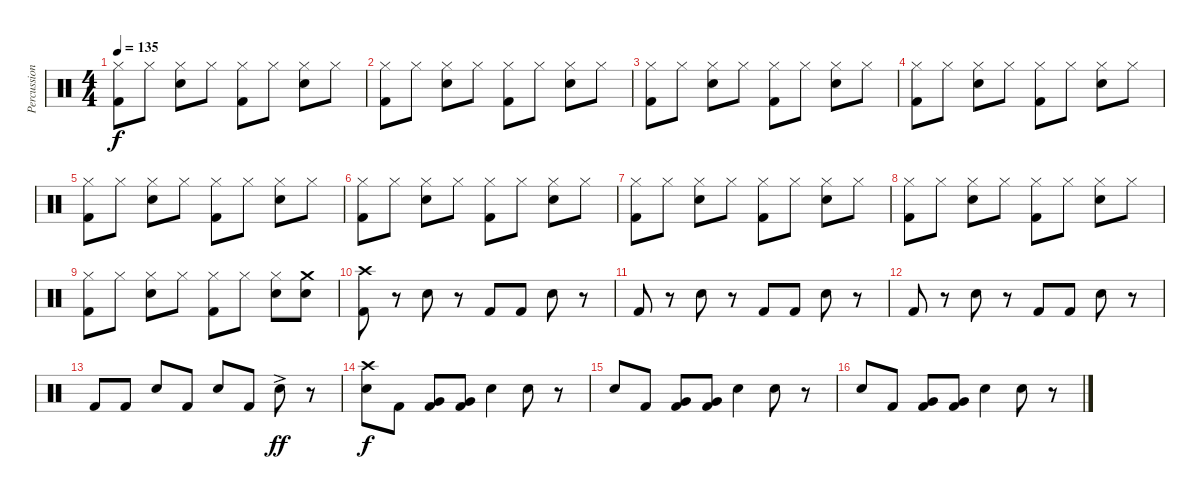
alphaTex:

\track ("Percussion" "Percussion") {instrument percussion}
\staff {score}
\articulation defaults
\ts (4 4)
\tempo 135
\clef neutral
\ks c
("Hi-Hat (closed)" "Kick (hit) 2").8{dy f} "Hi-Hat (closed)".8 ("Hi-Hat (closed)" "Snare (hit) 2").8 "Hi-Hat (closed)".8 ("Hi-Hat (closed)" "Kick (hit) 2").8 "Hi-Hat (closed)".8 ("Hi-Hat (closed)" "Snare (hit) 2").8 "Hi-Hat (closed)".8 |
("Hi-Hat (closed)" "Kick (hit) 2").8 "Hi-Hat (closed)".8 ("Hi-Hat (closed)" "Snare (hit) 2").8 "Hi-Hat (closed)".8 ("Hi-Hat (closed)" "Kick (hit) 2").8 "Hi-Hat (closed)".8 ("Hi-Hat (closed)" "Snare (hit) 2").8 "Hi-Hat (closed)".8 |
("Hi-Hat (closed)" "Kick (hit) 2").8 "Hi-Hat (closed)".8 ("Hi-Hat (closed)" "Snare (hit) 2").8 "Hi-Hat (closed)".8 ("Hi-Hat (closed)" "Kick (hit) 2").8 "Hi-Hat (closed)".8 ("Hi-Hat (closed)" "Snare (hit) 2").8 "Hi-Hat (closed)".8 |
("Hi-Hat (closed)" "Kick (hit) 2").8 "Hi-Hat (closed)".8 ("Hi-Hat (closed)" "Snare (hit) 2").8 "Hi-Hat (closed)".8 ("Hi-Hat (closed)" "Kick (hit) 2").8 "Hi-Hat (closed)".8 ("Hi-Hat (closed)" "Snare (hit) 2").8 "Hi-Hat (closed)".8 |
("Hi-Hat (closed)" "Kick (hit) 2").8 "Hi-Hat (closed)".8 ("Hi-Hat (closed)" "Snare (hit) 2").8 "Hi-Hat (closed)".8 ("Hi-Hat (closed)" "Kick (hit) 2").8 "Hi-Hat (closed)".8 ("Hi-Hat (closed)" "Snare (hit) 2").8 "Hi-Hat (closed)".8 |
("Hi-Hat (closed)" "Kick (hit) 2").8 "Hi-Hat (closed)".8 ("Hi-Hat (closed)" "Snare (hit) 2").8 "Hi-Hat (closed)".8 ("Hi-Hat (closed)" "Kick (hit) 2").8 "Hi-Hat (closed)".8 ("Hi-Hat (closed)" "Snare (hit) 2").8 "Hi-Hat (closed)".8 |
("Hi-Hat (closed)" "Kick (hit) 2").8 "Hi-Hat (closed)".8 ("Hi-Hat (closed)" "Snare (hit) 2").8 "Hi-Hat (closed)".8 ("Hi-Hat (closed)" "Kick (hit) 2").8 "Hi-Hat (closed)".8 ("Hi-Hat (closed)" "Snare (hit) 2").8 "Hi-Hat (closed)".8 |
("Hi-Hat (closed)" "Kick (hit) 2").8 "Hi-Hat (closed)".8 ("Hi-Hat (closed)" "Snare (hit) 2").8 "Hi-Hat (closed)".8 ("Hi-Hat (closed)" "Kick (hit) 2").8 "Hi-Hat (closed)".8 ("Hi-Hat (closed)" "Snare (hit) 2").8 "Hi-Hat (closed)".8 |
("Hi-Hat (closed)" "Kick (hit) 2").8 "Hi-Hat (closed)".8 ("Hi-Hat (closed)" "Snare (hit) 2").8 "Hi-Hat (closed)".8 ("Hi-Hat (closed)" "Kick (hit) 2").8 "Hi-Hat (closed)".8 ("Hi-Hat (closed)" "Snare (hit) 2").8 ("Crash medium (hit)" "Snare (hit) 2").8 |
("Crash high (hit)" "Kick (hit) 2").8 r.8 "Snare (hit) 2".8 r.8 "Kick (hit) 2".8 "Kick (hit) 2".8 "Snare (hit) 2".8 r.8 |
"Kick (hit) 2".8 r.8 "Snare (hit) 2".8 r.8 "Kick (hit) 2".8 "Kick (hit) 2".8 "Snare (hit) 2".8 r.8 |
"Kick (hit) 2".8 r.8 "Snare (hit) 2".8 r.8 "Kick (hit) 2".8 "Kick (hit) 2".8 "Snare (hit) 2".8 r.8 |
"Kick (hit) 2".8 "Kick (hit) 2".8 "Snare (hit) 2".8 "Kick (hit) 2".8 "Snare (hit) 2".8 "Kick (hit) 2".8 "Snare (hit) 2"{ac}.8{dy ff} r.8 |
("Crash high (hit)" "Snare (hit) 2").8{dy f} "Kick (hit) 2".8 ("Very Low Tom (hit)" "Kick (hit) 2").8 ("Very Low Tom (hit)" "Kick (hit) 2").8 "Snare (hit) 2".4 "Snare (hit) 2".8 r.8 |
"Snare (hit) 2".8 "Kick (hit) 2".8 ("Very Low Tom (hit)" "Kick (hit) 2").8 ("Very Low Tom (hit)" "Kick (hit) 2").8 "Snare (hit) 2".4 "Snare (hit) 2".8 r.8 |
"Snare (hit) 2".8 "Kick (hit) 2".8 ("Very Low Tom (hit)" "Kick (hit) 2").8 ("Very Low Tom (hit)" "Kick (hit) 2").8 "Snare (hit) 2".4 "Snare (hit) 2".8 r.8
